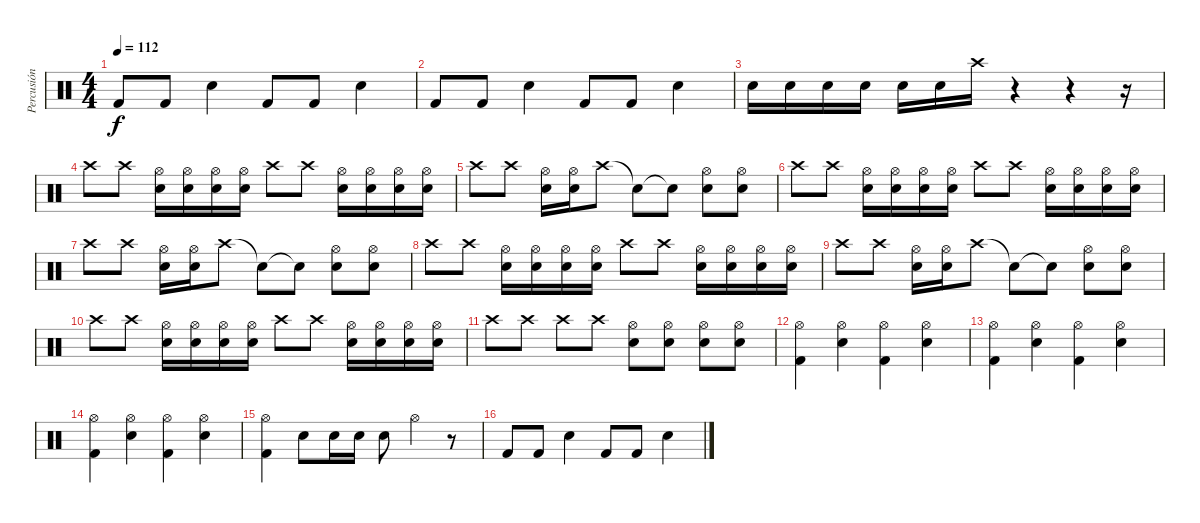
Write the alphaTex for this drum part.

\track ("Percusión" "Percusión") {instrument percussion}
\staff {score}
\articulation defaults
\ts (4 4)
\tempo 112
\clef neutral
\ks c "Kick (hit) 2".8{dy f} "Kick (hit) 2".8 "Snare (hit) 2".4 "Kick (hit) 2".8 "Kick (hit) 2".8 "Snare (hit) 2".4
|
"Kick (hit) 2".8 "Kick (hit) 2".8 "Snare (hit) 2".4 "Kick (hit) 2".8 "Kick (hit) 2".8 "Snare (hit) 2".4 |
"Snare (hit) 2".16 "Snare (hit) 2".16 "Snare (hit) 2".16 "Snare (hit) 2".16 "Snare (hit) 2".16 "Snare (hit) 2".16 "Crash high (hit)".16 r.4 r.4 r.16 |
"Crash high (hit)".8 "Crash high (hit)".8 ("Hi-Hat (open)" "Snare (hit) 2").16 ("Hi-Hat (open)" "Snare (hit) 2").16 ("Hi-Hat (open)" "Snare (hit) 2").16 ("Hi-Hat (open)" "Snare (hit) 2").16 "Crash high (hit)".8 "Crash high (hit)".8 ("Hi-Hat (open)" "Snare (hit) 2").16 ("Hi-Hat (open)" "Snare (hit) 2").16 ("Hi-Hat (open)" "Snare (hit) 2").16 ("Hi-Hat (open)" "Snare (hit) 2").16 |
"Crash high (hit)".8 "Crash high (hit)".8 ("Hi-Hat (open)" "Snare (hit) 2").16 ("Hi-Hat (open)" "Snare (hit) 2").16 "Crash high (hit)".8 "Snare (hit)"{t}.8 "Snare (hit)"{t}.8 ("Hi-Hat (open)" "Snare (hit) 2").8 ("Hi-Hat (open)" "Snare (hit) 2").8 |
"Crash high (hit)".8 "Crash high (hit)".8 ("Hi-Hat (open)" "Snare (hit) 2").16 ("Hi-Hat (open)" "Snare (hit) 2").16 ("Hi-Hat (open)" "Snare (hit) 2").16 ("Hi-Hat (open)" "Snare (hit) 2").16 "Crash high (hit)".8 "Crash high (hit)".8 ("Hi-Hat (open)" "Snare (hit) 2").16 ("Hi-Hat (open)" "Snare (hit) 2").16 ("Hi-Hat (open)" "Snare (hit) 2").16 ("Hi-Hat (open)" "Snare (hit) 2").16 |
"Crash high (hit)".8 "Crash high (hit)".8 ("Hi-Hat (open)" "Snare (hit) 2").16 ("Hi-Hat (open)" "Snare (hit) 2").16 "Crash high (hit)".8 "Snare (hit)"{t}.8 "Snare (hit)"{t}.8 ("Hi-Hat (open)" "Snare (hit) 2").8 ("Hi-Hat (open)" "Snare (hit) 2").8 |
"Crash high (hit)".8 "Crash high (hit)".8 ("Hi-Hat (open)" "Snare (hit) 2").16 ("Hi-Hat (open)" "Snare (hit) 2").16 ("Hi-Hat (open)" "Snare (hit) 2").16 ("Hi-Hat (open)" "Snare (hit) 2").16 "Crash high (hit)".8 "Crash high (hit)".8 ("Hi-Hat (open)" "Snare (hit) 2").16 ("Hi-Hat (open)" "Snare (hit) 2").16 ("Hi-Hat (open)" "Snare (hit) 2").16 ("Hi-Hat (open)" "Snare (hit) 2").16 |
"Crash high (hit)".8 "Crash high (hit)".8 ("Hi-Hat (open)" "Snare (hit) 2").16 ("Hi-Hat (open)" "Snare (hit) 2").16 "Crash high (hit)".8 "Snare (hit)"{t}.8 "Snare (hit)"{t}.8 ("Hi-Hat (open)" "Snare (hit) 2").8 ("Hi-Hat (open)" "Snare (hit) 2").8 |
"Crash high (hit)".8 "Crash high (hit)".8 ("Hi-Hat (open)" "Snare (hit) 2").16 ("Hi-Hat (open)" "Snare (hit) 2").16 ("Hi-Hat (open)" "Snare (hit) 2").16 ("Hi-Hat (open)" "Snare (hit) 2").16 "Crash high (hit)".8 "Crash high (hit)".8 ("Hi-Hat (open)" "Snare (hit) 2").16 ("Hi-Hat (open)" "Snare (hit) 2").16 ("Hi-Hat (open)" "Snare (hit) 2").16 ("Hi-Hat (open)" "Snare (hit) 2").16 |
"Crash high (hit)".8 "Crash high (hit)".8 "Crash high (hit)".8 "Crash high (hit)".8 ("Hi-Hat (open)" "Snare (hit) 2").8 ("Hi-Hat (open)" "Snare (hit) 2").8 ("Hi-Hat (open)" "Snare (hit) 2").8 ("Hi-Hat (open)" "Snare (hit) 2").8 |
("Hi-Hat (open)" "Kick (hit) 2").4 ("Hi-Hat (open)" "Snare (hit) 2").4 ("Hi-Hat (open)" "Kick (hit) 2").4 ("Hi-Hat (open)" "Snare (hit) 2").4 |
("Hi-Hat (open)" "Kick (hit) 2").4 ("Hi-Hat (open)" "Snare (hit) 2").4 ("Hi-Hat (open)" "Kick (hit) 2").4 ("Hi-Hat (open)" "Snare (hit) 2").4 |
("Hi-Hat (open)" "Kick (hit) 2").4 ("Hi-Hat (open)" "Snare (hit) 2").4 ("Hi-Hat (open)" "Kick (hit) 2").4 ("Hi-Hat (open)" "Snare (hit) 2").4 |
("Hi-Hat (open)" "Kick (hit) 2").4 "Snare (hit) 2".8 "Snare (hit) 2".16 "Snare (hit) 2".16 "Snare (hit) 2".8 "Hi-Hat (open)".4 r.8 |
"Kick (hit) 2".8 "Kick (hit) 2".8 "Snare (hit) 2".4 "Kick (hit) 2".8 "Kick (hit) 2".8 "Snare (hit) 2".4
